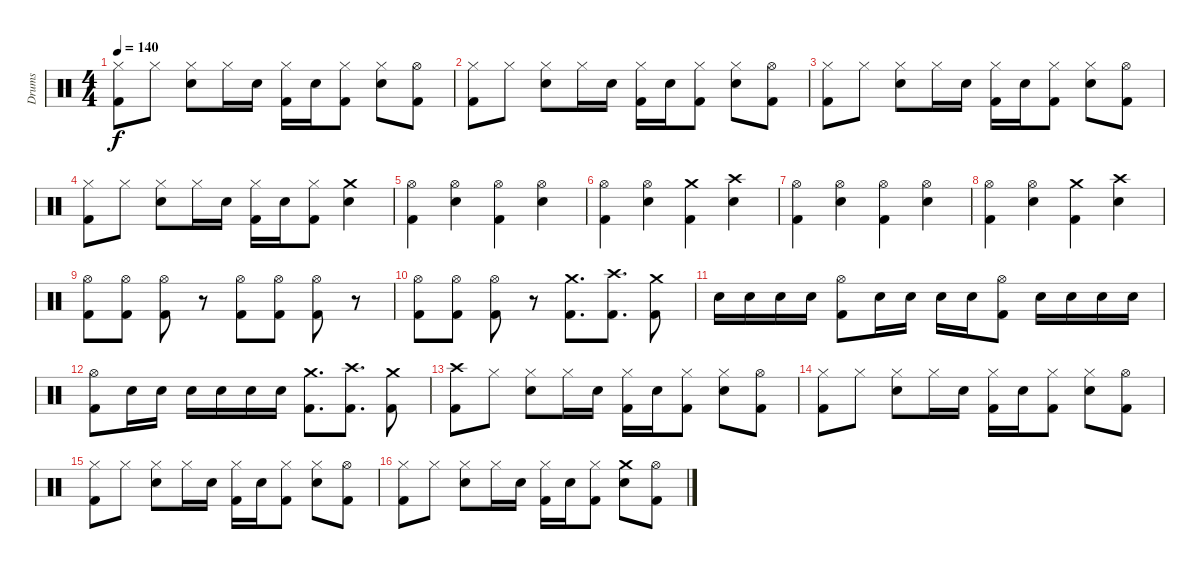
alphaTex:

\track ("Drums" "Drums") {instrument percussion}
\staff {score}
\articulation defaults
\ts (4 4)
\tempo 140
\clef neutral
\ks c
("Hi-Hat (closed)" "Kick (hit) 2").8{dy f} "Hi-Hat (closed)".8 ("Hi-Hat (closed)" "Electric Snare (hit)").8 "Hi-Hat (closed)".16 "Electric Snare (hit)".16 ("Hi-Hat (closed)" "Kick (hit) 2").16 "Electric Snare (hit)".16 ("Hi-Hat (closed)" "Kick (hit) 2").8 ("Hi-Hat (closed)" "Electric Snare (hit)").8 ("Hi-Hat (open)" "Kick (hit) 2").8 |
("Hi-Hat (closed)" "Kick (hit) 2").8 "Hi-Hat (closed)".8 ("Hi-Hat (closed)" "Electric Snare (hit)").8 "Hi-Hat (closed)".16 "Electric Snare (hit)".16 ("Hi-Hat (closed)" "Kick (hit) 2").16 "Electric Snare (hit)".16 ("Hi-Hat (closed)" "Kick (hit) 2").8 ("Hi-Hat (closed)" "Electric Snare (hit)").8 ("Hi-Hat (open)" "Kick (hit) 2").8 |
("Hi-Hat (closed)" "Kick (hit) 2").8 "Hi-Hat (closed)".8 ("Hi-Hat (closed)" "Electric Snare (hit)").8 "Hi-Hat (closed)".16 "Electric Snare (hit)".16 ("Hi-Hat (closed)" "Kick (hit) 2").16 "Electric Snare (hit)".16 ("Hi-Hat (closed)" "Kick (hit) 2").8 ("Hi-Hat (closed)" "Electric Snare (hit)").8 ("Hi-Hat (open)" "Kick (hit) 2").8 |
("Hi-Hat (closed)" "Kick (hit) 2").8 "Hi-Hat (closed)".8 ("Hi-Hat (closed)" "Electric Snare (hit)").8 "Hi-Hat (closed)".16 "Electric Snare (hit)".16 ("Hi-Hat (closed)" "Kick (hit) 2").16 "Electric Snare (hit)".16 ("Hi-Hat (closed)" "Kick (hit) 2").8 ("Crash medium (hit)" "Electric Snare (hit)").4 |
("Hi-Hat (open)" "Kick (hit) 2").4 ("Hi-Hat (open)" "Electric Snare (hit)").4 ("Hi-Hat (open)" "Kick (hit) 2").4 ("Hi-Hat (open)" "Electric Snare (hit)").4 |
("Hi-Hat (open)" "Kick (hit) 2").4 ("Hi-Hat (open)" "Electric Snare (hit)").4 ("Crash medium (hit)" "Kick (hit) 2").4 ("Crash high (hit)" "Electric Snare (hit)").4 |
("Hi-Hat (open)" "Kick (hit) 2").4 ("Hi-Hat (open)" "Electric Snare (hit)").4 ("Hi-Hat (open)" "Kick (hit) 2").4 ("Hi-Hat (open)" "Electric Snare (hit)").4 |
("Hi-Hat (open)" "Kick (hit) 2").4 ("Hi-Hat (open)" "Electric Snare (hit)").4 ("Crash medium (hit)" "Kick (hit) 2").4 ("Crash high (hit)" "Electric Snare (hit)").4 |
("Hi-Hat (open)" "Kick (hit) 2").8 ("Hi-Hat (open)" "Kick (hit) 2").8 ("Hi-Hat (open)" "Kick (hit) 2").8 r.8 ("Hi-Hat (open)" "Kick (hit) 2").8 ("Hi-Hat (open)" "Kick (hit) 2").8 ("Hi-Hat (open)" "Kick (hit) 2").8 r.8 |
("Hi-Hat (open)" "Kick (hit) 2").8 ("Hi-Hat (open)" "Kick (hit) 2").8 ("Hi-Hat (open)" "Kick (hit) 2").8 r.8 ("Crash medium (hit)" "Kick (hit) 2").8{d} ("Crash high (hit)" "Kick (hit) 2").8{d} ("Crash medium (hit)" "Kick (hit) 2").8 |
"Electric Snare (hit)".16 "Electric Snare (hit)".16 "Electric Snare (hit)".16 "Electric Snare (hit)".16 ("Hi-Hat (open)" "Kick (hit) 2").8 "Electric Snare (hit)".16 "Electric Snare (hit)".16 "Electric Snare (hit)".16 "Electric Snare (hit)".16 ("Hi-Hat (open)" "Kick (hit) 2").8 "Electric Snare (hit)".16 "Electric Snare (hit)".16 "Electric Snare (hit)".16 "Electric Snare (hit)".16 |
("Hi-Hat (open)" "Kick (hit) 2").8 "Electric Snare (hit)".16 "Electric Snare (hit)".16 "Electric Snare (hit)".16 "Electric Snare (hit)".16 "Electric Snare (hit)".16 "Electric Snare (hit)".16 ("Crash medium (hit)" "Kick (hit) 2").8{d} ("Crash high (hit)" "Kick (hit) 2").8{d} ("Crash medium (hit)" "Kick (hit) 2").8 |
("Crash high (hit)" "Kick (hit) 2").8 "Hi-Hat (closed)".8 ("Hi-Hat (closed)" "Electric Snare (hit)").8 "Hi-Hat (closed)".16 "Electric Snare (hit)".16 ("Hi-Hat (closed)" "Kick (hit) 2").16 "Electric Snare (hit)".16 ("Hi-Hat (closed)" "Kick (hit) 2").8 ("Hi-Hat (closed)" "Electric Snare (hit)").8 ("Hi-Hat (open)" "Kick (hit) 2").8 |
("Hi-Hat (closed)" "Kick (hit) 2").8 "Hi-Hat (closed)".8 ("Hi-Hat (closed)" "Electric Snare (hit)").8 "Hi-Hat (closed)".16 "Electric Snare (hit)".16 ("Hi-Hat (closed)" "Kick (hit) 2").16 "Electric Snare (hit)".16 ("Hi-Hat (closed)" "Kick (hit) 2").8 ("Hi-Hat (closed)" "Electric Snare (hit)").8 ("Hi-Hat (open)" "Kick (hit) 2").8 |
("Hi-Hat (closed)" "Kick (hit) 2").8 "Hi-Hat (closed)".8 ("Hi-Hat (closed)" "Electric Snare (hit)").8 "Hi-Hat (closed)".16 "Electric Snare (hit)".16 ("Hi-Hat (closed)" "Kick (hit) 2").16 "Electric Snare (hit)".16 ("Hi-Hat (closed)" "Kick (hit) 2").8 ("Hi-Hat (closed)" "Electric Snare (hit)").8 ("Hi-Hat (open)" "Kick (hit) 2").8 |
("Hi-Hat (closed)" "Kick (hit) 2").8 "Hi-Hat (closed)".8 ("Hi-Hat (closed)" "Electric Snare (hit)").8 "Hi-Hat (closed)".16 "Electric Snare (hit)".16 ("Hi-Hat (closed)" "Kick (hit) 2").16 "Electric Snare (hit)".16 ("Hi-Hat (closed)" "Kick (hit) 2").8 ("Crash medium (hit)" "Electric Snare (hit)").8 ("Hi-Hat (open)" "Kick (hit) 2").8
